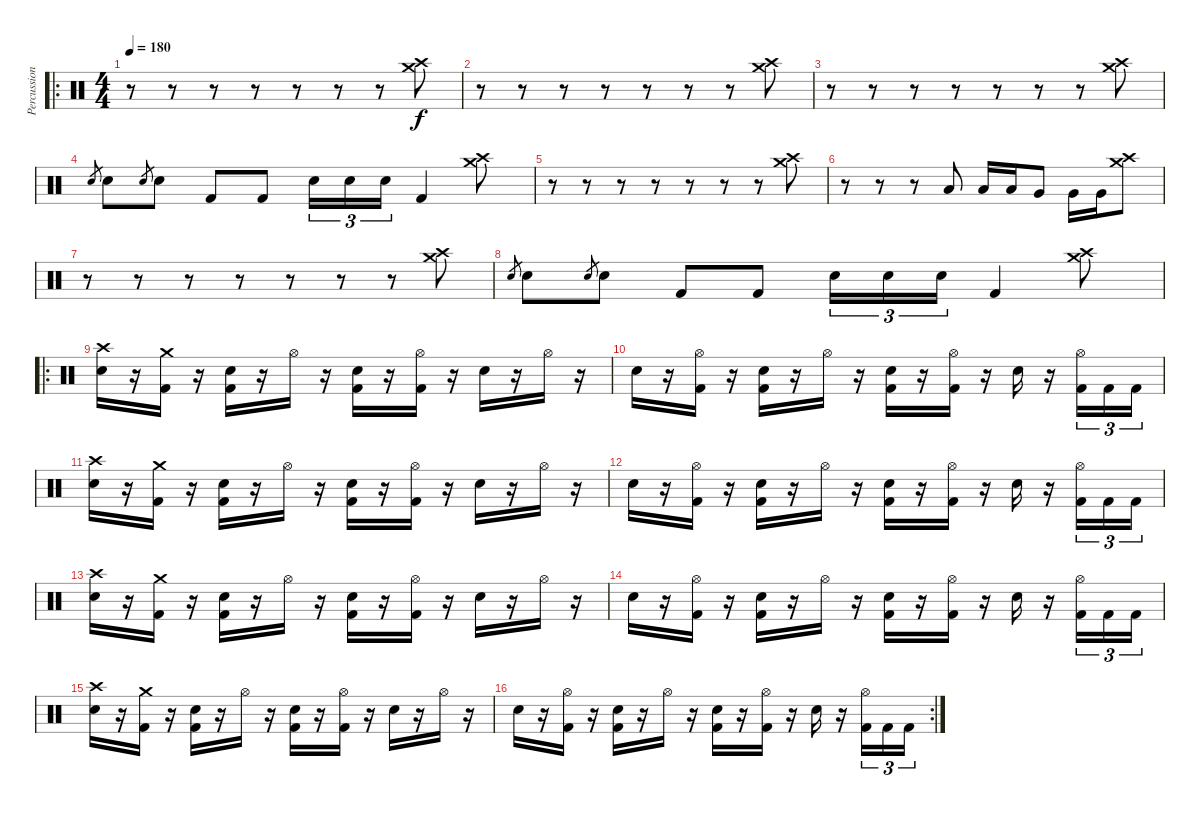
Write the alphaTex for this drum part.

\track ("Percussions" "Percussion") {instrument percussion}
\staff {score}
\articulation defaults
\ro
\ts (4 4)
\tempo 180
\clef neutral
\ks c
r.8{dy f} r.8 r.8 r.8 r.8 r.8 r.8 ("Crash high (hit)" "Crash medium (hit)").8 |
r.8 r.8 r.8 r.8 r.8 r.8 r.8 ("Crash high (hit)" "Crash medium (hit)").8 |
r.8 r.8 r.8 r.8 r.8 r.8 r.8 ("Crash medium (hit)" "Crash high (hit)").8 |
"Snare (hit) 2".8{gr} "Snare (hit) 2".8 "Snare (hit) 2".8{gr} "Snare (hit) 2".8 "Kick (hit) 2".8 "Kick (hit) 2".8 "Snare (hit) 2".16{tu (3 2)} "Snare (hit) 2".16{tu (3 2)} "Snare (hit) 2".16{tu (3 2)} "Kick (hit) 2".4 ("Crash medium (hit)" "Crash high (hit)").8 |
r.8 r.8 r.8 r.8 r.8 r.8 r.8 ("Crash high (hit)" "Crash medium (hit)").8 |
r.8 r.8 r.8 "Low Tom (hit)".8 "Low Tom (hit)".16 "Low Tom (hit)".16 "Very Low Tom (hit)".8 "Very Low Tom (hit)".16 "Very Low Tom (hit)".16 ("Crash high (hit)" "Crash medium (hit)").8 |
r.8 r.8 r.8 r.8 r.8 r.8 r.8 ("Crash medium (hit)" "Crash high (hit)").8 |
"Snare (hit) 2".8{gr} "Snare (hit) 2".8 "Snare (hit) 2".8{gr} "Snare (hit) 2".8 "Kick (hit) 2".8 "Kick (hit) 2".8 "Snare (hit) 2".16{tu (3 2)} "Snare (hit) 2".16{tu (3 2)} "Snare (hit) 2".16{tu (3 2)} "Kick (hit) 2".4 ("Crash medium (hit)" "Crash high (hit)").8 |
\ro
("Crash high (hit)" "Snare (hit) 2").16 r.16 ("Crash medium (hit)" "Kick (hit) 2").16 r.16 ("Snare (hit) 2" "Kick (hit) 2").16 r.16 "Hi-Hat (open)".16 r.16 ("Snare (hit) 2" "Kick (hit) 2").16 r.16 ("Hi-Hat (open)" "Kick (hit) 2").16 r.16 "Snare (hit) 2".16 r.16 "Hi-Hat (open)".16 r.16 |
"Snare (hit) 2".16 r.16 ("Hi-Hat (open)" "Kick (hit) 2").16 r.16 ("Snare (hit) 2" "Kick (hit) 2").16 r.16 "Hi-Hat (open)".16 r.16 ("Snare (hit) 2" "Kick (hit) 2").16 r.16 ("Hi-Hat (open)" "Kick (hit) 2").16 r.16 "Snare (hit) 2".16 r.16 ("Hi-Hat (open)" "Kick (hit) 2").16{tu (3 2)} "Kick (hit) 2".16{tu (3 2)} "Kick (hit) 2".16{tu (3 2)} |
("Crash high (hit)" "Snare (hit) 2").16 r.16 ("Crash medium (hit)" "Kick (hit) 2").16 r.16 ("Snare (hit) 2" "Kick (hit) 2").16 r.16 "Hi-Hat (open)".16 r.16 ("Snare (hit) 2" "Kick (hit) 2").16 r.16 ("Hi-Hat (open)" "Kick (hit) 2").16 r.16 "Snare (hit) 2".16 r.16 "Hi-Hat (open)".16 r.16 |
"Snare (hit) 2".16 r.16 ("Hi-Hat (open)" "Kick (hit) 2").16 r.16 ("Snare (hit) 2" "Kick (hit) 2").16 r.16 "Hi-Hat (open)".16 r.16 ("Snare (hit) 2" "Kick (hit) 2").16 r.16 ("Hi-Hat (open)" "Kick (hit) 2").16 r.16 "Snare (hit) 2".16 r.16 ("Hi-Hat (open)" "Kick (hit) 2").16{tu (3 2)} "Kick (hit) 2".16{tu (3 2)} "Kick (hit) 2".16{tu (3 2)} |
("Crash high (hit)" "Snare (hit) 2").16 r.16 ("Crash medium (hit)" "Kick (hit) 2").16 r.16 ("Snare (hit) 2" "Kick (hit) 2").16 r.16 "Hi-Hat (open)".16 r.16 ("Snare (hit) 2" "Kick (hit) 2").16 r.16 ("Hi-Hat (open)" "Kick (hit) 2").16 r.16 "Snare (hit) 2".16 r.16 "Hi-Hat (open)".16 r.16 |
"Snare (hit) 2".16 r.16 ("Hi-Hat (open)" "Kick (hit) 2").16 r.16 ("Snare (hit) 2" "Kick (hit) 2").16 r.16 "Hi-Hat (open)".16 r.16 ("Snare (hit) 2" "Kick (hit) 2").16 r.16 ("Hi-Hat (open)" "Kick (hit) 2").16 r.16 "Snare (hit) 2".16 r.16 ("Hi-Hat (open)" "Kick (hit) 2").16{tu (3 2)} "Kick (hit) 2".16{tu (3 2)} "Kick (hit) 2".16{tu (3 2)} |
("Crash high (hit)" "Snare (hit) 2").16 r.16 ("Crash medium (hit)" "Kick (hit) 2").16 r.16 ("Snare (hit) 2" "Kick (hit) 2").16 r.16 "Hi-Hat (open)".16 r.16 ("Snare (hit) 2" "Kick (hit) 2").16 r.16 ("Hi-Hat (open)" "Kick (hit) 2").16 r.16 "Snare (hit) 2".16 r.16 "Hi-Hat (open)".16 r.16 |
\rc 2 "Snare (hit) 2".16
r.16 ("Hi-Hat (open)" "Kick (hit) 2").16 r.16 ("Snare (hit) 2" "Kick (hit) 2").16 r.16 "Hi-Hat (open)".16 r.16 ("Snare (hit) 2" "Kick (hit) 2").16 r.16 ("Hi-Hat (open)" "Kick (hit) 2").16 r.16 "Snare (hit) 2".16 r.16 ("Hi-Hat (open)" "Kick (hit) 2").16{tu (3 2)} "Kick (hit) 2".16{tu (3 2)} "Kick (hit) 2".16{tu (3 2)}
